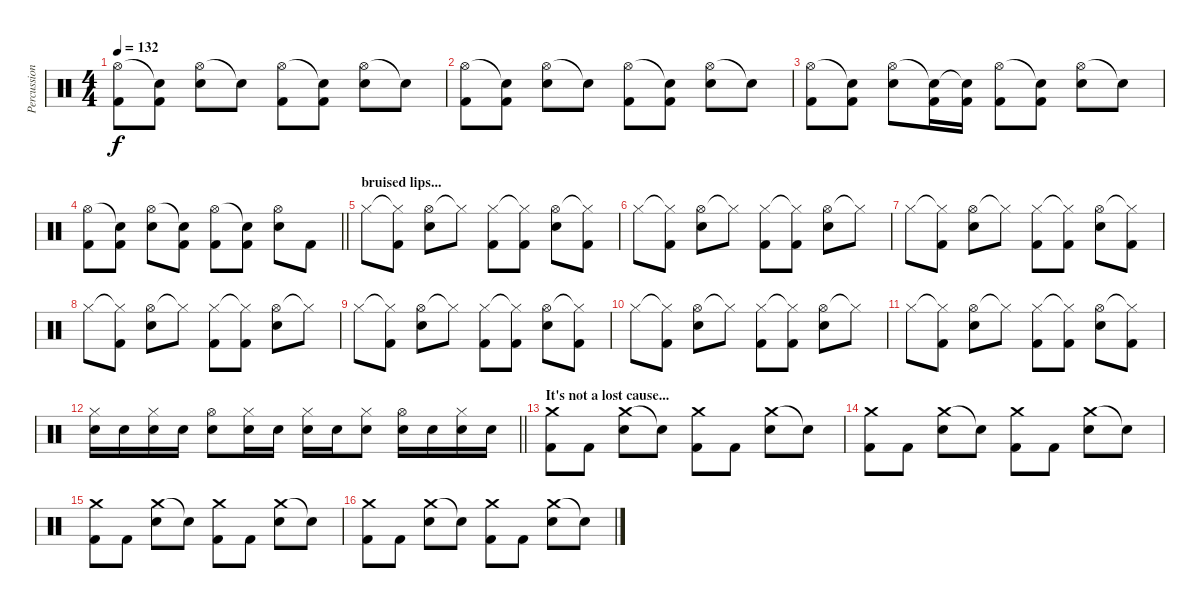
\track ("Percussioni" "Percussion") {instrument percussion}
\staff {score}
\articulation defaults
\ts (4 4)
\tempo 132
\clef neutral
\ks c
("Hi-Hat (open)" "Kick (hit) 2").8{dy f} ("Snare (hit)"{t} "Kick (hit) 2").8 ("Hi-Hat (open)" "Snare (hit) 2").8 "Snare (hit)"{t}.8 ("Hi-Hat (open)" "Kick (hit) 2").8 ("Snare (hit)"{t} "Kick (hit) 2").8 ("Hi-Hat (open)" "Snare (hit) 2").8 "Snare (hit)"{t}.8 |
("Hi-Hat (open)" "Kick (hit) 2").8 ("Snare (hit)"{t} "Kick (hit) 2").8 ("Hi-Hat (open)" "Snare (hit) 2").8 "Snare (hit)"{t}.8 ("Hi-Hat (open)" "Kick (hit) 2").8 ("Snare (hit)"{t} "Kick (hit) 2").8 ("Hi-Hat (open)" "Snare (hit) 2").8 "Snare (hit)"{t}.8 |
("Hi-Hat (open)" "Kick (hit) 2").8{volume 16} ("Snare (hit)"{t} "Kick (hit) 2").8 ("Hi-Hat (open)" "Snare (hit) 2").8 ("Snare (hit)"{t} "Kick (hit) 2").16 ("Snare (hit)"{t} "Kick (hit) 2").16 ("Hi-Hat (open)" "Kick (hit) 2").8 ("Snare (hit)"{t} "Kick (hit) 2").8 ("Hi-Hat (open)" "Snare (hit) 2").8 "Snare (hit)"{t}.8 |
\barLineRight lightlight
("Hi-Hat (open)" "Kick (hit) 2").8 ("Snare (hit)"{t} "Kick (hit) 2").8 ("Hi-Hat (open)" "Snare (hit) 2").8 ("Snare (hit)"{t} "Kick (hit) 2").8 ("Hi-Hat (open)" "Kick (hit) 2").8 ("Snare (hit)"{t} "Kick (hit) 2").8 ("Hi-Hat (open)" "Snare (hit) 2").8 "Kick (hit) 2".8 |
\section ("" "bruised lips...")
"Hi-Hat (closed)".8 ("Hi-Hat (closed)"{t} "Kick (hit) 2").8 ("Hi-Hat (open)" "Snare (hit) 2").8 "Hi-Hat (closed)"{t}.8 ("Hi-Hat (closed)" "Kick (hit) 2").8 ("Hi-Hat (closed)"{t} "Kick (hit) 2").8 ("Hi-Hat (open)" "Snare (hit) 2").8 ("Hi-Hat (closed)"{t} "Kick (hit) 2").8 |
"Hi-Hat (closed)".8 ("Hi-Hat (closed)"{t} "Kick (hit) 2").8 ("Hi-Hat (open)" "Snare (hit) 2").8 "Hi-Hat (closed)"{t}.8 ("Hi-Hat (closed)" "Kick (hit) 2").8 ("Hi-Hat (closed)"{t} "Kick (hit) 2").8 ("Hi-Hat (open)" "Snare (hit) 2").8 "Hi-Hat (closed)"{t}.8 |
"Hi-Hat (closed)".8 ("Hi-Hat (closed)"{t} "Kick (hit) 2").8 ("Hi-Hat (open)" "Snare (hit) 2").8 "Hi-Hat (closed)"{t}.8 ("Hi-Hat (closed)" "Kick (hit) 2").8 ("Hi-Hat (closed)"{t} "Kick (hit) 2").8 ("Hi-Hat (open)" "Snare (hit) 2").8 ("Hi-Hat (closed)"{t} "Kick (hit) 2").8 |
"Hi-Hat (closed)".8 ("Hi-Hat (closed)"{t} "Kick (hit) 2").8 ("Hi-Hat (open)" "Snare (hit) 2").8 "Hi-Hat (closed)"{t}.8 ("Hi-Hat (closed)" "Kick (hit) 2").8 ("Hi-Hat (closed)"{t} "Kick (hit) 2").8 ("Hi-Hat (open)" "Snare (hit) 2").8 "Hi-Hat (closed)"{t}.8 |
"Hi-Hat (closed)".8 ("Hi-Hat (closed)"{t} "Kick (hit) 2").8 ("Hi-Hat (open)" "Snare (hit) 2").8 "Hi-Hat (closed)"{t}.8 ("Hi-Hat (closed)" "Kick (hit) 2").8 ("Hi-Hat (closed)"{t} "Kick (hit) 2").8 ("Hi-Hat (open)" "Snare (hit) 2").8 ("Hi-Hat (closed)"{t} "Kick (hit) 2").8 |
"Hi-Hat (closed)".8 ("Hi-Hat (closed)"{t} "Kick (hit) 2").8 ("Hi-Hat (open)" "Snare (hit) 2").8 "Hi-Hat (closed)"{t}.8 ("Hi-Hat (closed)" "Kick (hit) 2").8 ("Hi-Hat (closed)"{t} "Kick (hit) 2").8 ("Hi-Hat (open)" "Snare (hit) 2").8 "Hi-Hat (closed)"{t}.8 |
"Hi-Hat (closed)".8 ("Hi-Hat (closed)"{t} "Kick (hit) 2").8 ("Hi-Hat (open)" "Snare (hit) 2").8 "Hi-Hat (closed)"{t}.8 ("Hi-Hat (closed)" "Kick (hit) 2").8 ("Hi-Hat (closed)"{t} "Kick (hit) 2").8 ("Hi-Hat (open)" "Snare (hit) 2").8 ("Hi-Hat (closed)"{t} "Kick (hit) 2").8 |
\barLineRight lightlight
("Hi-Hat (closed)" "Snare (hit) 2").16 "Snare (hit) 2".16 ("Hi-Hat (closed)" "Snare (hit) 2").16 "Snare (hit) 2".16 ("Hi-Hat (open)" "Snare (hit) 2").8 ("Hi-Hat (closed)" "Snare (hit) 2").16 "Snare (hit) 2".16 ("Hi-Hat (closed)" "Snare (hit) 2").16 "Snare (hit) 2".16 ("Hi-Hat (closed)" "Snare (hit) 2").8 ("Hi-Hat (open)" "Snare (hit) 2").16 "Snare (hit) 2".16 ("Hi-Hat (closed)" "Snare (hit) 2").16 "Snare (hit) 2".16 |
\section ("" "It's not a lost cause...")
("Crash medium (hit)" "Kick (hit) 2").8 "Kick (hit) 2".8 ("Crash medium (hit)" "Snare (hit) 2").8 "Snare (hit)"{t}.8 ("Crash medium (hit)" "Kick (hit) 2").8 "Kick (hit) 2".8 ("Crash medium (hit)" "Snare (hit) 2").8 "Snare (hit)"{t}.8 |
("Crash medium (hit)" "Kick (hit) 2").8 "Kick (hit) 2".8 ("Crash medium (hit)" "Snare (hit) 2").8 "Snare (hit)"{t}.8 ("Crash medium (hit)" "Kick (hit) 2").8 "Kick (hit) 2".8 ("Crash medium (hit)" "Snare (hit) 2").8 "Snare (hit)"{t}.8 |
("Crash medium (hit)" "Kick (hit) 2").8 "Kick (hit) 2".8 ("Crash medium (hit)" "Snare (hit) 2").8 "Snare (hit)"{t}.8 ("Crash medium (hit)" "Kick (hit) 2").8 "Kick (hit) 2".8 ("Crash medium (hit)" "Snare (hit) 2").8 "Snare (hit)"{t}.8 |
("Crash medium (hit)" "Kick (hit) 2").8 "Kick (hit) 2".8 ("Crash medium (hit)" "Snare (hit) 2").8 "Snare (hit)"{t}.8 ("Crash medium (hit)" "Kick (hit) 2").8 "Kick (hit) 2".8 ("Crash medium (hit)" "Snare (hit) 2").8 "Snare (hit)"{t}.8
